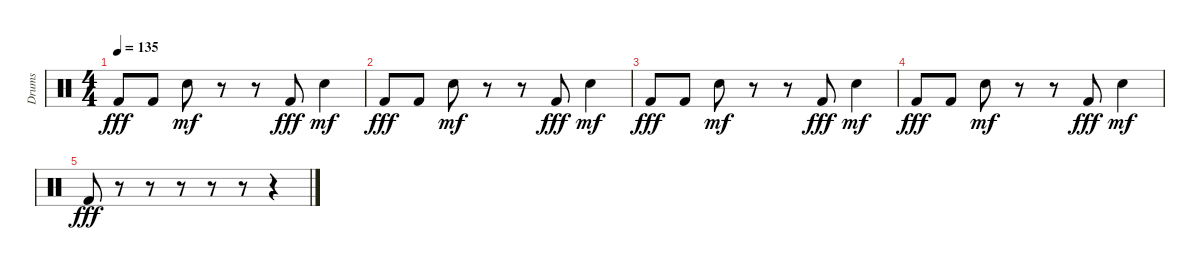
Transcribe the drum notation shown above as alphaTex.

\track ("Drums" "Drums") {instrument percussion}
\staff {score}
\articulation defaults
\ts (4 4)
\tempo 135
\clef neutral
\ks c "Kick (hit) 2".8{dy fff} "Kick (hit) 2".8 "Snare (hit) 2".8{dy mf}
r.8 r.8 "Kick (hit) 2".8{dy fff} "Snare (hit) 2".4{dy mf} |
"Kick (hit) 2".8{dy fff} "Kick (hit) 2".8 "Snare (hit) 2".8{dy mf} r.8 r.8 "Kick (hit) 2".8{dy fff} "Snare (hit) 2".4{dy mf} |
"Kick (hit) 2".8{dy fff} "Kick (hit) 2".8 "Snare (hit) 2".8{dy mf} r.8 r.8 "Kick (hit) 2".8{dy fff} "Snare (hit) 2".4{dy mf} |
"Kick (hit) 2".8{dy fff} "Kick (hit) 2".8 "Snare (hit) 2".8{dy mf} r.8 r.8 "Kick (hit) 2".8{dy fff} "Snare (hit) 2".4{dy mf} |
"Kick (hit) 2".8{dy fff} r.8 r.8 r.8 r.8 r.8 r.4
